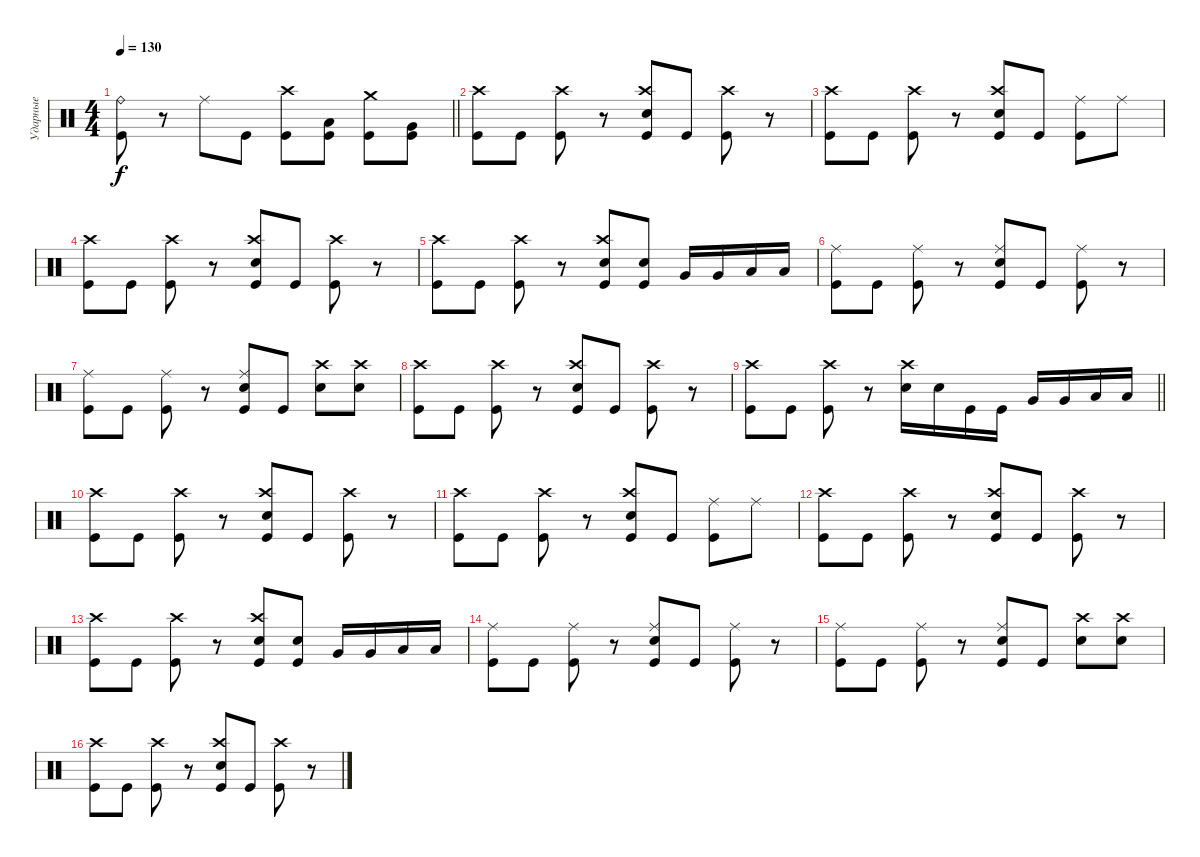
\track ("Ударные" "Ударные") {instrument percussion}
\staff {score}
\articulation defaults
\ts (4 4)
\tempo 130
\clef neutral
\barLineRight lightlight
\ks c
("Ride (bell)" "Kick (hit)").8{dy f} r.8 "Ride (middle)".8 "Kick (hit)".8 ("Crash high (hit)" "Kick (hit)").8 ("Low Tom (hit)" "Kick (hit)").8 ("Crash medium (hit)" "Kick (hit)").8 ("Very Low Tom (hit)" "Kick (hit)").8 |
\section ("" " ")
("Crash high (hit)" "Kick (hit)").8 "Kick (hit)".8 ("Crash high (hit)" "Kick (hit)").8 r.8 ("Crash high (hit)" "Electric Snare (hit)" "Kick (hit)").8 "Kick (hit)".8 ("Crash high (hit)" "Kick (hit)").8 r.8 |
("Crash high (hit)" "Kick (hit)").8 "Kick (hit)".8 ("Crash high (hit)" "Kick (hit)").8 r.8 ("Crash high (hit)" "Electric Snare (hit)" "Kick (hit)").8 "Kick (hit)".8 ("Ride (middle)" "Kick (hit)").8 "Ride (middle)".8 |
("Crash high (hit)" "Kick (hit)").8 "Kick (hit)".8 ("Crash high (hit)" "Kick (hit)").8 r.8 ("Crash high (hit)" "Electric Snare (hit)" "Kick (hit)").8 "Kick (hit)".8 ("Crash high (hit)" "Kick (hit)").8 r.8 |
("Crash high (hit)" "Kick (hit)").8 "Kick (hit)".8 ("Crash high (hit)" "Kick (hit)").8 r.8 ("Crash high (hit)" "Electric Snare (hit)" "Kick (hit)").8 ("Electric Snare (hit)" "Kick (hit)").8 "Very Low Tom (hit)".16 "Very Low Tom (hit)".16 "Low Floor Tom (hit)".16 "Low Floor Tom (hit)".16 |
("Ride (middle)" "Kick (hit)").8 "Kick (hit)".8 ("Ride (middle)" "Kick (hit)").8 r.8 ("Ride (middle)" "Electric Snare (hit)" "Kick (hit)").8 "Kick (hit)".8 ("Ride (middle)" "Kick (hit)").8 r.8 |
("Ride (middle)" "Kick (hit)").8 "Kick (hit)".8 ("Ride (middle)" "Kick (hit)").8 r.8 ("Ride (middle)" "Electric Snare (hit)" "Kick (hit)").8 "Kick (hit)".8 ("Crash high (hit)" "Electric Snare (hit)").8 ("Crash high (hit)" "Electric Snare (hit)").8 |
("Crash high (hit)" "Kick (hit)").8 "Kick (hit)".8 ("Crash high (hit)" "Kick (hit)").8 r.8 ("Crash high (hit)" "Electric Snare (hit)" "Kick (hit)").8 "Kick (hit)".8 ("Crash high (hit)" "Kick (hit)").8 r.8 |
\barLineRight lightlight
("Crash high (hit)" "Kick (hit)").8 "Kick (hit)".8 ("Crash high (hit)" "Kick (hit)").8 r.8 ("Crash high (hit)" "Electric Snare (hit)").16 "Electric Snare (hit)".16 "Kick (hit)".16 "Kick (hit)".16 "Very Low Tom (hit)".16 "Very Low Tom (hit)".16 "Low Floor Tom (hit)".16 "Low Floor Tom (hit)".16 |
("Crash high (hit)" "Kick (hit)").8 "Kick (hit)".8 ("Crash high (hit)" "Kick (hit)").8 r.8 ("Crash high (hit)" "Electric Snare (hit)" "Kick (hit)").8 "Kick (hit)".8 ("Crash high (hit)" "Kick (hit)").8 r.8 |
("Crash high (hit)" "Kick (hit)").8 "Kick (hit)".8 ("Crash high (hit)" "Kick (hit)").8 r.8 ("Crash high (hit)" "Electric Snare (hit)" "Kick (hit)").8 "Kick (hit)".8 ("Ride (middle)" "Kick (hit)").8 "Ride (middle)".8 |
("Crash high (hit)" "Kick (hit)").8 "Kick (hit)".8 ("Crash high (hit)" "Kick (hit)").8 r.8 ("Crash high (hit)" "Electric Snare (hit)" "Kick (hit)").8 "Kick (hit)".8 ("Crash high (hit)" "Kick (hit)").8 r.8 |
("Crash high (hit)" "Kick (hit)").8 "Kick (hit)".8 ("Crash high (hit)" "Kick (hit)").8 r.8 ("Crash high (hit)" "Electric Snare (hit)" "Kick (hit)").8 ("Electric Snare (hit)" "Kick (hit)").8 "Very Low Tom (hit)".16 "Very Low Tom (hit)".16 "Low Floor Tom (hit)".16 "Low Floor Tom (hit)".16 |
("Ride (middle)" "Kick (hit)").8 "Kick (hit)".8 ("Ride (middle)" "Kick (hit)").8 r.8 ("Ride (middle)" "Electric Snare (hit)" "Kick (hit)").8 "Kick (hit)".8 ("Ride (middle)" "Kick (hit)").8 r.8 |
("Ride (middle)" "Kick (hit)").8 "Kick (hit)".8 ("Ride (middle)" "Kick (hit)").8 r.8 ("Ride (middle)" "Electric Snare (hit)" "Kick (hit)").8 "Kick (hit)".8 ("Crash high (hit)" "Electric Snare (hit)").8 ("Crash high (hit)" "Electric Snare (hit)").8 |
("Crash high (hit)" "Kick (hit)").8 "Kick (hit)".8 ("Crash high (hit)" "Kick (hit)").8 r.8 ("Crash high (hit)" "Electric Snare (hit)" "Kick (hit)").8 "Kick (hit)".8 ("Crash high (hit)" "Kick (hit)").8 r.8
